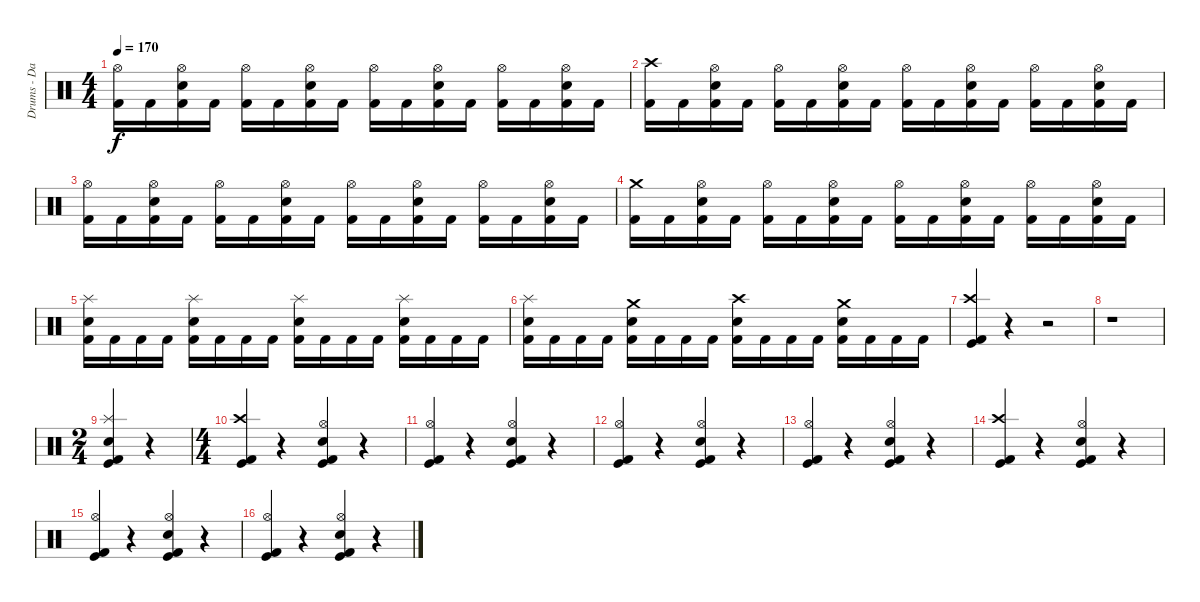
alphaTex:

\track ("Drums - Daniel Zimmermann" "Drums - Da") {instrument percussion}
\staff {score}
\articulation defaults
\ts (4 4)
\tempo 170
\clef neutral
\ks c
("Kick (hit) 2" "Hi-Hat (open)").16{dy f} "Kick (hit) 2".16 ("Kick (hit) 2" "Electric Snare (hit)" "Hi-Hat (open)").16 "Kick (hit) 2".16 ("Kick (hit) 2" "Hi-Hat (open)").16 "Kick (hit) 2".16 ("Kick (hit) 2" "Electric Snare (hit)" "Hi-Hat (open)").16 "Kick (hit) 2".16 ("Kick (hit) 2" "Hi-Hat (open)").16 "Kick (hit) 2".16 ("Kick (hit) 2" "Electric Snare (hit)" "Hi-Hat (open)").16 "Kick (hit) 2".16 ("Kick (hit) 2" "Hi-Hat (open)").16 "Kick (hit) 2".16 ("Kick (hit) 2" "Electric Snare (hit)" "Hi-Hat (open)").16 "Kick (hit) 2".16 |
("Kick (hit) 2" "Crash high (hit)").16 "Kick (hit) 2".16 ("Kick (hit) 2" "Electric Snare (hit)" "Hi-Hat (open)").16 "Kick (hit) 2".16 ("Kick (hit) 2" "Hi-Hat (open)").16 "Kick (hit) 2".16 ("Kick (hit) 2" "Electric Snare (hit)" "Hi-Hat (open)").16 "Kick (hit) 2".16 ("Kick (hit) 2" "Hi-Hat (open)").16 "Kick (hit) 2".16 ("Kick (hit) 2" "Electric Snare (hit)" "Hi-Hat (open)").16 "Kick (hit) 2".16 ("Kick (hit) 2" "Hi-Hat (open)").16 "Kick (hit) 2".16 ("Kick (hit) 2" "Electric Snare (hit)" "Hi-Hat (open)").16 "Kick (hit) 2".16 |
("Kick (hit) 2" "Hi-Hat (open)").16 "Kick (hit) 2".16 ("Kick (hit) 2" "Electric Snare (hit)" "Hi-Hat (open)").16 "Kick (hit) 2".16 ("Kick (hit) 2" "Hi-Hat (open)").16 "Kick (hit) 2".16 ("Kick (hit) 2" "Electric Snare (hit)" "Hi-Hat (open)").16 "Kick (hit) 2".16 ("Kick (hit) 2" "Hi-Hat (open)").16 "Kick (hit) 2".16 ("Kick (hit) 2" "Electric Snare (hit)" "Hi-Hat (open)").16 "Kick (hit) 2".16 ("Kick (hit) 2" "Hi-Hat (open)").16 "Kick (hit) 2".16 ("Kick (hit) 2" "Electric Snare (hit)" "Hi-Hat (open)").16 "Kick (hit) 2".16 |
("Kick (hit) 2" "Crash medium (hit)").16 "Kick (hit) 2".16 ("Kick (hit) 2" "Electric Snare (hit)" "Hi-Hat (open)").16 "Kick (hit) 2".16 ("Kick (hit) 2" "Hi-Hat (open)").16 "Kick (hit) 2".16 ("Kick (hit) 2" "Electric Snare (hit)" "Hi-Hat (open)").16 "Kick (hit) 2".16 ("Kick (hit) 2" "Hi-Hat (open)").16 "Kick (hit) 2".16 ("Kick (hit) 2" "Electric Snare (hit)" "Hi-Hat (open)").16 "Kick (hit) 2".16 ("Kick (hit) 2" "Hi-Hat (open)").16 "Kick (hit) 2".16 ("Kick (hit) 2" "Electric Snare (hit)" "Hi-Hat (open)").16 "Kick (hit) 2".16 |
("Kick (hit) 2" "Electric Snare (hit)" "Splash (hit)").16 "Kick (hit) 2".16 "Kick (hit) 2".16 "Kick (hit) 2".16 ("Kick (hit) 2" "Electric Snare (hit)" "Splash (hit)").16 "Kick (hit) 2".16 "Kick (hit) 2".16 "Kick (hit) 2".16 ("Kick (hit) 2" "Electric Snare (hit)" "Splash (hit)").16 "Kick (hit) 2".16 "Kick (hit) 2".16 "Kick (hit) 2".16 ("Kick (hit) 2" "Electric Snare (hit)" "Splash (hit)").16 "Kick (hit) 2".16 "Kick (hit) 2".16 "Kick (hit) 2".16 |
("Kick (hit) 2" "Electric Snare (hit)" "Splash (hit)").16 "Kick (hit) 2".16 "Kick (hit) 2".16 "Kick (hit) 2".16 ("Kick (hit) 2" "Electric Snare (hit)" "Crash medium (hit)").16 "Kick (hit) 2".16 "Kick (hit) 2".16 "Kick (hit) 2".16 ("Kick (hit) 2" "Electric Snare (hit)" "Crash high (hit)").16 "Kick (hit) 2".16 "Kick (hit) 2".16 "Kick (hit) 2".16 ("Kick (hit) 2" "Electric Snare (hit)" "Crash medium (hit)").16 "Kick (hit) 2".16 "Kick (hit) 2".16 "Kick (hit) 2".16 |
("Kick (hit) 2" "Kick (hit)" "Crash high (hit)").4 r.4 r.2 |
r.1 |
\ts (2 4)
("Kick (hit) 2" "Kick (hit)" "Electric Snare (hit)" "Splash (hit)").4 r.4 |
\ts (4 4)
("Kick (hit) 2" "Kick (hit)" "Crash high (hit)").4 r.4 ("Kick (hit) 2" "Kick (hit)" "Electric Snare (hit)" "Hi-Hat (open)").4 r.4 |
("Kick (hit) 2" "Kick (hit)" "Hi-Hat (open)").4 r.4 ("Kick (hit) 2" "Kick (hit)" "Electric Snare (hit)" "Hi-Hat (open)").4 r.4 |
("Kick (hit) 2" "Kick (hit)" "Hi-Hat (open)").4 r.4 ("Kick (hit) 2" "Kick (hit)" "Electric Snare (hit)" "Hi-Hat (open)").4 r.4 |
("Kick (hit) 2" "Kick (hit)" "Hi-Hat (open)").4 r.4 ("Kick (hit) 2" "Kick (hit)" "Electric Snare (hit)" "Hi-Hat (open)").4 r.4 |
("Kick (hit) 2" "Kick (hit)" "Crash high (hit)").4 r.4 ("Kick (hit) 2" "Kick (hit)" "Electric Snare (hit)" "Hi-Hat (open)").4 r.4 |
("Kick (hit) 2" "Kick (hit)" "Hi-Hat (open)").4 r.4 ("Kick (hit) 2" "Kick (hit)" "Electric Snare (hit)" "Hi-Hat (open)").4 r.4 |
("Kick (hit) 2" "Kick (hit)" "Hi-Hat (open)").4 r.4 ("Kick (hit) 2" "Kick (hit)" "Electric Snare (hit)" "Hi-Hat (open)").4 r.4
